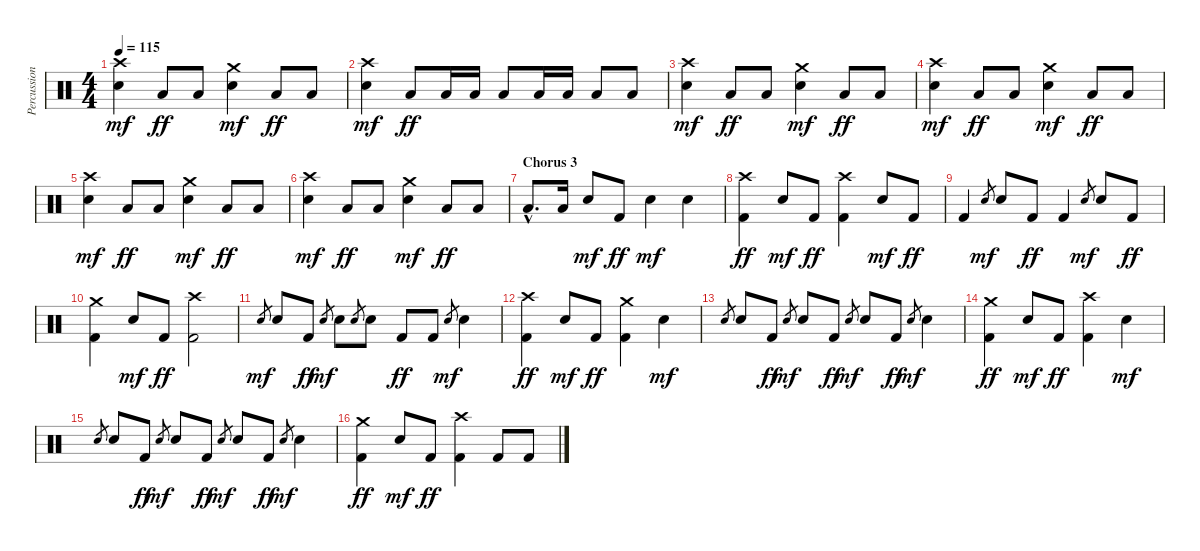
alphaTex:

\track ("Percussion" "Percussion") {instrument percussion}
\staff {score}
\articulation defaults
\ts (4 4)
\tempo 115
\clef neutral
\ks c
("Crash high (hit)" "Snare (hit) 2").4{dy mf} "Low Floor Tom (hit)".8{dy ff} "Low Floor Tom (hit)".8 ("Crash medium (hit)" "Snare (hit) 2").4{dy mf} "Low Floor Tom (hit)".8{dy ff} "Low Floor Tom (hit)".8 |
("Crash high (hit)" "Snare (hit) 2").4{dy mf} "Low Floor Tom (hit)".8{dy ff} "Low Tom (hit)".16 "Low Tom (hit)".16 "Low Tom (hit)".8 "Low Floor Tom (hit)".16 "Low Floor Tom (hit)".16 "Low Floor Tom (hit)".8 "Low Floor Tom (hit)".8 |
("Crash high (hit)" "Snare (hit) 2").4{dy mf} "Low Floor Tom (hit)".8{dy ff} "Low Floor Tom (hit)".8 ("Crash medium (hit)" "Snare (hit) 2").4{dy mf} "Low Floor Tom (hit)".8{dy ff} "Low Floor Tom (hit)".8 |
("Crash high (hit)" "Snare (hit) 2").4{dy mf} "Low Floor Tom (hit)".8{dy ff} "Low Floor Tom (hit)".8 ("Crash medium (hit)" "Snare (hit) 2").4{dy mf} "Low Floor Tom (hit)".8{dy ff} "Low Floor Tom (hit)".8 |
("Crash high (hit)" "Snare (hit) 2").4{dy mf} "Low Floor Tom (hit)".8{dy ff} "Low Floor Tom (hit)".8 ("Crash medium (hit)" "Snare (hit) 2").4{dy mf} "Low Floor Tom (hit)".8{dy ff} "Low Floor Tom (hit)".8 |
("Crash high (hit)" "Snare (hit) 2").4{dy mf} "Low Floor Tom (hit)".8{dy ff} "Low Floor Tom (hit)".8 ("Crash medium (hit)" "Snare (hit) 2").4{dy mf} "Low Floor Tom (hit)".8{dy ff} "Low Floor Tom (hit)".8 |
\section ("" "Chorus 3")
"Low Floor Tom (hit)"{hac}.8{d} "Low Floor Tom (hit)".16 "Snare (hit) 2".8{dy mf} "Kick (hit) 2".8{dy ff} "Snare (hit) 2".4{dy mf} "Snare (hit) 2".4 |
("Crash high (hit)" "Kick (hit) 2").4{dy ff} "Snare (hit) 2".8{dy mf} "Kick (hit) 2".8{dy ff} ("Crash high (hit)" "Kick (hit) 2").4 "Snare (hit) 2".8{dy mf} "Kick (hit) 2".8{dy ff} |
"Kick (hit) 2".4 "Snare (hit) 2".8{gr dy mf} "Snare (hit) 2".8 "Kick (hit) 2".8{dy ff} "Kick (hit) 2".4 "Snare (hit) 2".8{gr dy mf} "Snare (hit) 2".8 "Kick (hit) 2".8{dy ff} |
("Crash medium (hit)" "Kick (hit) 2").4 "Snare (hit) 2".8{dy mf} "Kick (hit) 2".8{dy ff} ("Crash high (hit)" "Kick (hit) 2").2 |
"Snare (hit) 2".8{gr dy mf} "Snare (hit) 2".8 "Kick (hit) 2".8{dy ff} "Snare (hit) 2".8{gr dy mf} "Snare (hit) 2".8 "Snare (hit) 2".8{gr} "Snare (hit) 2".8 "Kick (hit) 2".8{dy ff} "Kick (hit) 2".8 "Snare (hit) 2".8{gr dy mf} "Snare (hit) 2".4 |
("Crash high (hit)" "Kick (hit) 2").4{dy ff} "Snare (hit) 2".8{dy mf} "Kick (hit) 2".8{dy ff} ("Crash medium (hit)" "Kick (hit) 2").4 "Snare (hit) 2".4{dy mf} |
"Snare (hit) 2".8{gr} "Snare (hit) 2".8 "Kick (hit) 2".8{dy ff} "Snare (hit) 2".8{gr dy mf} "Snare (hit) 2".8 "Kick (hit) 2".8{dy ff} "Snare (hit) 2".8{gr dy mf} "Snare (hit) 2".8 "Kick (hit) 2".8{dy ff} "Snare (hit) 2".8{gr dy mf} "Snare (hit) 2".4 |
("Crash medium (hit)" "Kick (hit) 2").4{dy ff} "Snare (hit) 2".8{dy mf} "Kick (hit) 2".8{dy ff} ("Crash high (hit)" "Kick (hit) 2").4 "Snare (hit) 2".4{dy mf} |
"Snare (hit) 2".8{gr} "Snare (hit) 2".8 "Kick (hit) 2".8{dy ff} "Snare (hit) 2".8{gr dy mf} "Snare (hit) 2".8 "Kick (hit) 2".8{dy ff} "Snare (hit) 2".8{gr dy mf} "Snare (hit) 2".8 "Kick (hit) 2".8{dy ff} "Snare (hit) 2".8{gr dy mf} "Snare (hit) 2".4 |
("Crash medium (hit)" "Kick (hit) 2").4{dy ff} "Snare (hit) 2".8{dy mf} "Kick (hit) 2".8{dy ff} ("Crash high (hit)" "Kick (hit) 2").4 "Kick (hit) 2".8 "Kick (hit) 2".8
